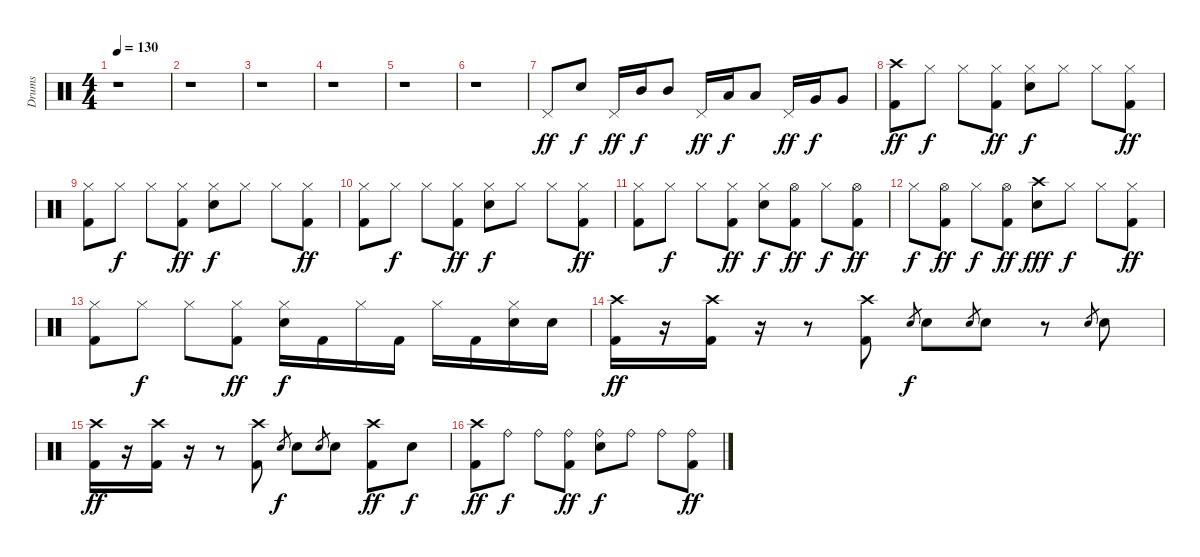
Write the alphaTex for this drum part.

\track ("Drums" "Drums") {instrument percussion}
\staff {score}
\articulation defaults
\ts (4 4)
\tempo 130
\clef neutral
\ks c
r.1{dy ff} |
r.1 |
r.1 |
r.1 |
r.1 |
r.1 |
"Pedal Hi-Hat (hit)".8 "Snare (hit) 2".8{dy f} "Pedal Hi-Hat (hit)".16{dy ff} "Mid Tom (hit)".16{dy f} "Mid Tom (hit)".8 "Pedal Hi-Hat (hit)".16{dy ff} "Low Tom (hit)".16{dy f} "Low Tom (hit)".8 "Pedal Hi-Hat (hit)".16{dy ff} "Very Low Tom (hit)".16{dy f} "Very Low Tom (hit)".8 |
("Crash high (hit)" "Kick (hit) 2").8{dy ff} "Hi-Hat (closed)".8{dy f} "Hi-Hat (closed)".8 ("Hi-Hat (closed)" "Kick (hit) 2").8{dy ff} ("Hi-Hat (closed)" "Snare (hit) 2").8{dy f} "Hi-Hat (closed)".8 "Hi-Hat (closed)".8 ("Hi-Hat (closed)" "Kick (hit) 2").8{dy ff} |
("Hi-Hat (closed)" "Kick (hit) 2").8 "Hi-Hat (closed)".8{dy f} "Hi-Hat (closed)".8 ("Hi-Hat (closed)" "Kick (hit) 2").8{dy ff} ("Hi-Hat (closed)" "Snare (hit) 2").8{dy f} "Hi-Hat (closed)".8 "Hi-Hat (closed)".8 ("Hi-Hat (closed)" "Kick (hit) 2").8{dy ff} |
("Hi-Hat (closed)" "Kick (hit) 2").8 "Hi-Hat (closed)".8{dy f} "Hi-Hat (closed)".8 ("Hi-Hat (closed)" "Kick (hit) 2").8{dy ff} ("Hi-Hat (closed)" "Snare (hit) 2").8{dy f} "Hi-Hat (closed)".8 "Hi-Hat (closed)".8 ("Hi-Hat (closed)" "Kick (hit) 2").8{dy ff} |
("Hi-Hat (closed)" "Kick (hit) 2").8 "Hi-Hat (closed)".8{dy f} "Hi-Hat (closed)".8 ("Hi-Hat (closed)" "Kick (hit) 2").8{dy ff} ("Hi-Hat (closed)" "Snare (hit) 2").8{dy f} ("Hi-Hat (open)" "Kick (hit) 2").8{dy ff} "Hi-Hat (closed)".8{dy f} ("Hi-Hat (open)" "Kick (hit) 2").8{dy ff} |
"Hi-Hat (closed)".8{dy f} ("Hi-Hat (open)" "Kick (hit) 2").8{dy ff} "Hi-Hat (closed)".8{dy f} ("Hi-Hat (open)" "Kick (hit) 2").8{dy ff} ("Crash high (hit)" "Snare (hit) 2").8{dy fff} "Hi-Hat (closed)".8{dy f} "Hi-Hat (closed)".8 ("Hi-Hat (closed)" "Kick (hit) 2").8{dy ff} |
("Hi-Hat (closed)" "Kick (hit) 2").8 "Hi-Hat (closed)".8{dy f} "Hi-Hat (closed)".8 ("Hi-Hat (closed)" "Kick (hit) 2").8{dy ff} ("Hi-Hat (closed)" "Snare (hit) 2").16{dy f} "Kick (hit) 2".16 "Hi-Hat (closed)".16 "Kick (hit) 2".16 "Hi-Hat (closed)".16 "Kick (hit) 2".16 ("Hi-Hat (closed)" "Snare (hit) 2").16 "Snare (hit) 2".16 |
("Crash high (hit)" "Kick (hit) 2").16{dy ff} r.16 ("Crash high (hit)" "Kick (hit) 2").16 r.16 r.8 ("Crash high (hit)" "Kick (hit) 2").8 "Snare (hit) 2".8{gr dy f} "Snare (hit) 2".8 "Snare (hit) 2".8{gr} "Snare (hit) 2".8 r.8 "Snare (hit) 2".8{gr} "Snare (hit) 2".8 |
("Crash high (hit)" "Kick (hit) 2").16{dy ff} r.16 ("Crash high (hit)" "Kick (hit) 2").16 r.16 r.8 ("Crash high (hit)" "Kick (hit) 2").8 "Snare (hit) 2".8{gr dy f} "Snare (hit) 2".8 "Snare (hit) 2".8{gr} "Snare (hit) 2".8 ("Crash high (hit)" "Kick (hit) 2").8{dy ff} "Snare (hit) 2".8{dy f} |
("Crash high (hit)" "Kick (hit) 2").8{dy ff} "Ride (bell)".8{dy f} "Ride (bell)".8 ("Ride (bell)" "Kick (hit) 2").8{dy ff} ("Ride (bell)" "Snare (hit) 2").8{dy f} "Ride (bell)".8 "Ride (bell)".8 ("Ride (bell)" "Kick (hit) 2").8{dy ff}
